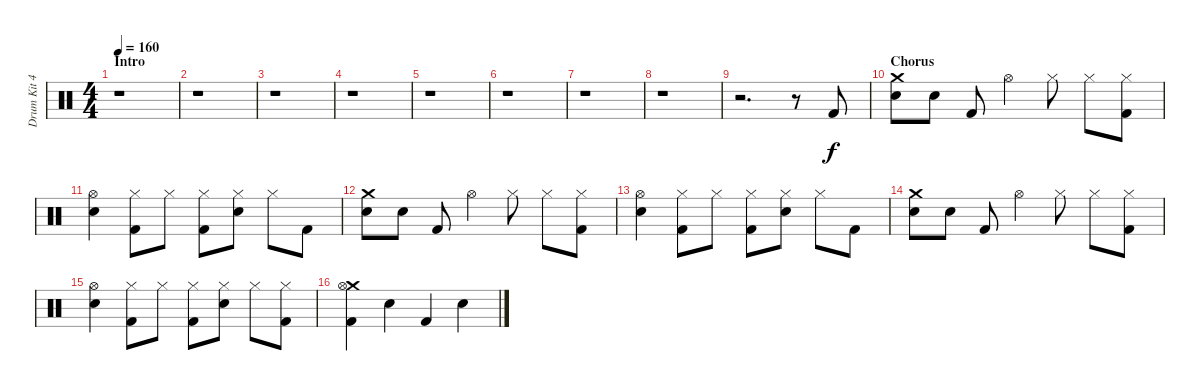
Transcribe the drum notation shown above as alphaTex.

\track ("Drum Kit 42" "Drum Kit 4") {instrument percussion}
\staff {score}
\articulation defaults
\ts (4 4)
\section ("" "Intro")
\tempo 160
\clef neutral
\ks c
r.1{dy f} |
r.1 |
r.1 |
r.1 |
r.1 |
r.1 |
r.1 |
r.1 |
r.2{d} r.8 "Kick (hit) 2".8 |
\section ("" "Chorus")
("Crash medium (hit)" "Snare (hit) 2").8 "Snare (hit) 2".8 "Kick (hit) 2".8 "Hi-Hat (open)".4 "Hi-Hat (closed)".8 "Hi-Hat (closed)".8 ("Hi-Hat (closed)" "Kick (hit) 2").8 |
("Hi-Hat (open)" "Snare (hit) 2").4 ("Hi-Hat (closed)" "Kick (hit) 2").8 "Hi-Hat (closed)".8 ("Hi-Hat (closed)" "Kick (hit) 2").8 ("Hi-Hat (closed)" "Snare (hit) 2").8 "Hi-Hat (closed)".8 "Kick (hit) 2".8 |
("Crash medium (hit)" "Snare (hit) 2").8 "Snare (hit) 2".8 "Kick (hit) 2".8 "Hi-Hat (open)".4 "Hi-Hat (closed)".8 "Hi-Hat (closed)".8 ("Hi-Hat (closed)" "Kick (hit) 2").8 |
("Hi-Hat (open)" "Snare (hit) 2").4 ("Hi-Hat (closed)" "Kick (hit) 2").8 "Hi-Hat (closed)".8 ("Hi-Hat (closed)" "Kick (hit) 2").8 ("Hi-Hat (closed)" "Snare (hit) 2").8 "Hi-Hat (closed)".8 "Kick (hit) 2".8 |
("Crash medium (hit)" "Snare (hit) 2").8 "Snare (hit) 2".8 "Kick (hit) 2".8 "Hi-Hat (open)".4 "Hi-Hat (closed)".8 "Hi-Hat (closed)".8 ("Hi-Hat (closed)" "Kick (hit) 2").8 |
("Hi-Hat (open)" "Snare (hit) 2").4 ("Hi-Hat (closed)" "Kick (hit) 2").8 "Hi-Hat (closed)".8 ("Hi-Hat (closed)" "Kick (hit) 2").8 ("Hi-Hat (closed)" "Snare (hit) 2").8 "Hi-Hat (closed)".8 ("Hi-Hat (closed)" "Kick (hit) 2").8 |
("Crash medium (hit)" "Hi-Hat (open)" "Kick (hit) 2").4 "Snare (hit) 2".4 "Kick (hit) 2".4 "Snare (hit) 2".4
